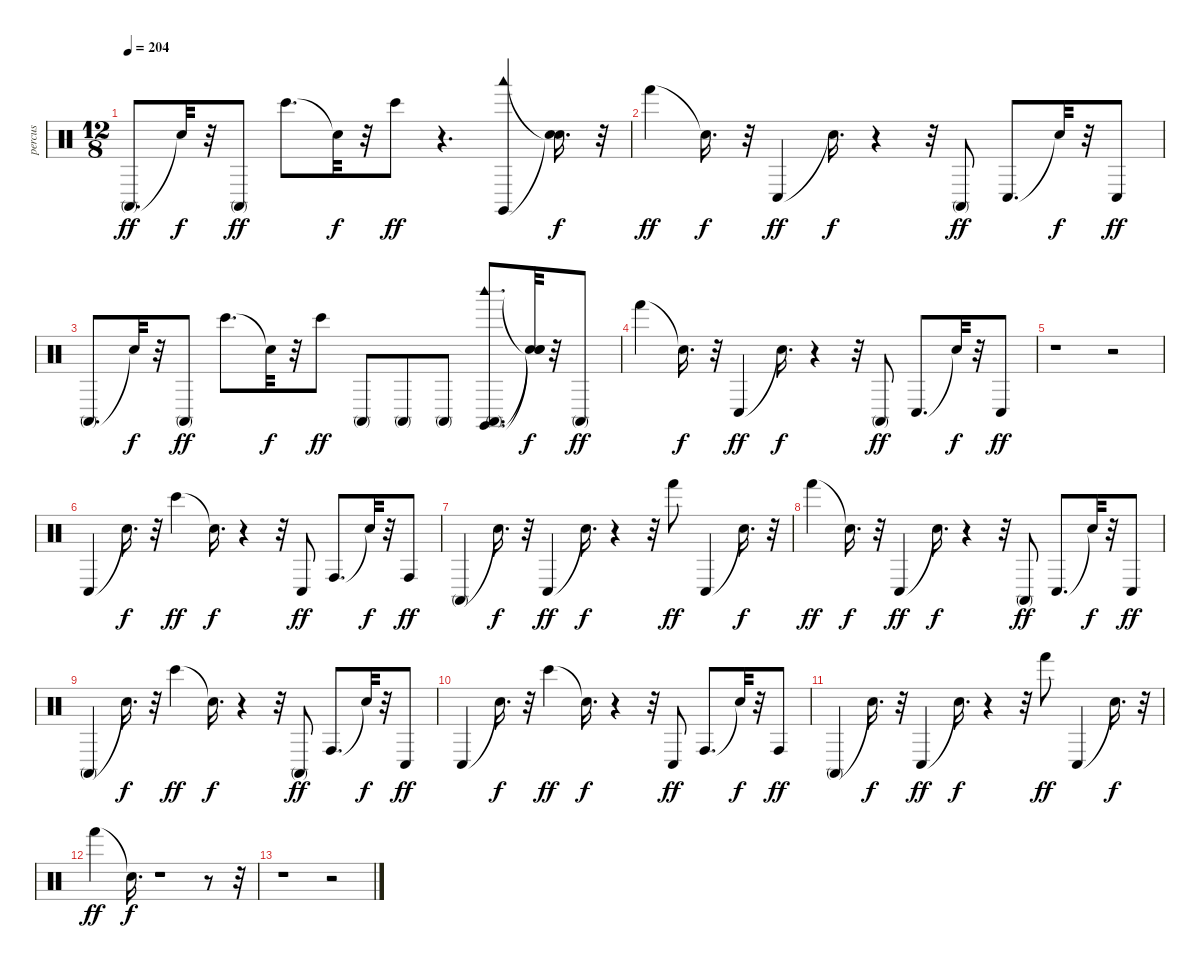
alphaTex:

\track ("percus" "percus") {instrument percussion}
\staff {score}
\articulation defaults
\ts (12 8)
\tempo 204
\clef neutral
\ks c "Conga high (mute)".8{d dy ff} "Snare (hit)"{t}.32{dy f}
r.32 "Conga high (mute)".8{dy ff} "Bongo High (hit)".8{d} "Snare (hit)"{t}.32{dy f} r.32 "Bongo High (hit)".8{dy ff} r.4{d} ("Claves (hit)" "Woodblock low (hit)").4 ("Snare (hit)"{t} "Snare (hit)"{t}).16{d dy f} r.32 |
"Hand (hit)".4{dy ff} "Snare (hit)"{t}.16{d dy f} r.32 "Conga low (hit)".4{dy ff} "Snare (hit)"{t}.16{d dy f} r.4 r.32 "Conga high (mute)".8{dy ff} "Conga low (hit)".8{d} "Snare (hit)"{t}.32{dy f} r.32 "Conga low (hit)".8{dy ff} |
"Conga high (mute)".8{d} "Snare (hit)"{t}.32{dy f} r.32 "Conga high (mute)".8{dy ff} "Bongo High (hit)".8{d} "Snare (hit)"{t}.32{dy f} r.32 "Bongo High (hit)".8{dy ff} "Conga high (mute)".8 "Conga high (mute)".8 "Conga high (mute)".8 ("Conga high (mute)" "Claves (hit)" "Woodblock high (hit)").8{d} ("Snare (hit)"{t} "Snare (hit)"{t} "Snare (hit)"{t}).32{dy f} r.32 "Conga high (mute)".8{dy ff} |
"Hand (hit)".4 "Snare (hit)"{t}.16{d dy f} r.32 "Conga low (hit)".4{dy ff} "Snare (hit)"{t}.16{d dy f} r.4 r.32 "Conga high (mute)".8{dy ff} "Conga low (hit)".8{d} "Snare (hit)"{t}.32{dy f} r.32 "Conga low (hit)".8{dy ff} |
r.1 r.2 |
"Conga low (hit)".4 "Snare (hit)"{t}.16{d dy f} r.32 "Bongo High (hit)".4{dy ff} "Snare (hit)"{t}.16{d dy f} r.4 r.32 "Conga low (hit)".8{dy ff} "Conga high (hit)".8{d} "Snare (hit)"{t}.32{dy f} r.32 "Conga high (hit)".8{dy ff} |
"Conga high (mute)".4 "Snare (hit)"{t}.16{d dy f} r.32 "Conga low (hit)".4{dy ff} "Snare (hit)"{t}.16{d dy f} r.4 r.32 "Hand (hit)".8{dy ff} "Conga low (hit)".4 "Snare (hit)"{t}.16{d dy f} r.32 |
"Hand (hit)".4{dy ff} "Snare (hit)"{t}.16{d dy f} r.32 "Conga low (hit)".4{dy ff} "Snare (hit)"{t}.16{d dy f} r.4 r.32 "Conga high (mute)".8{dy ff} "Conga low (hit)".8{d} "Snare (hit)"{t}.32{dy f} r.32 "Conga low (hit)".8{dy ff} |
"Conga high (mute)".4 "Snare (hit)"{t}.16{d dy f} r.32 "Bongo High (hit)".4{dy ff} "Snare (hit)"{t}.16{d dy f} r.4 r.32 "Conga high (mute)".8{dy ff} "Conga high (hit)".8{d} "Snare (hit)"{t}.32{dy f} r.32 "Conga low (hit)".8{dy ff} |
"Conga low (hit)".4 "Snare (hit)"{t}.16{d dy f} r.32 "Bongo High (hit)".4{dy ff} "Snare (hit)"{t}.16{d dy f} r.4 r.32 "Conga low (hit)".8{dy ff} "Conga high (hit)".8{d} "Snare (hit)"{t}.32{dy f} r.32 "Conga high (hit)".8{dy ff} |
"Conga high (mute)".4 "Snare (hit)"{t}.16{d dy f} r.32 "Conga low (hit)".4{dy ff} "Snare (hit)"{t}.16{d dy f} r.4 r.32 "Hand (hit)".8{dy ff} "Conga low (hit)".4 "Snare (hit)"{t}.16{d dy f} r.32 |
"Hand (hit)".4{dy ff} "Snare (hit)"{t}.16{d dy f} r.1 r.8 r.32 |
r.1 r.2
